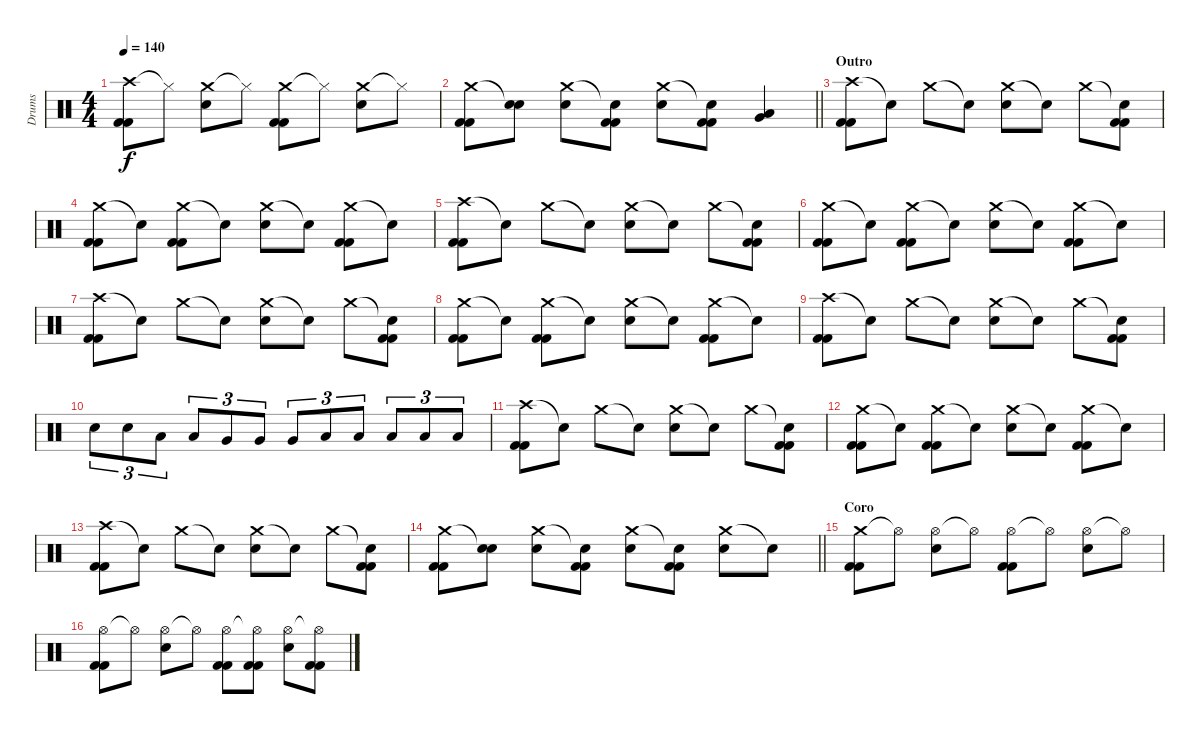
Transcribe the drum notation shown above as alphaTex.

\track ("Drums" "Drums") {instrument percussion}
\staff {score}
\articulation defaults
\ts (4 4)
\tempo 140
\clef neutral
\ks c
("Crash high (hit)" "Kick (hit) 2" "Kick (hit) 2").8{dy f} "Hi-Hat (closed)"{t}.8 ("Crash medium (hit)" "Electric Snare (hit)").8 "Hi-Hat (closed)"{t}.8 ("Crash medium (hit)" "Kick (hit) 2" "Kick (hit) 2").8 "Hi-Hat (closed)"{t}.8 ("Crash medium (hit)" "Electric Snare (hit)").8 "Hi-Hat (closed)"{t}.8 |
\barLineRight lightlight
("Crash medium (hit)" "Kick (hit) 2" "Kick (hit) 2").8 ("Snare (hit)"{t} "Electric Snare (hit)").8 ("Crash medium (hit)" "Electric Snare (hit)").8 ("Snare (hit)"{t} "Kick (hit) 2" "Kick (hit) 2").8 ("Crash medium (hit)" "Electric Snare (hit)").8 ("Snare (hit)"{t} "Kick (hit) 2" "Kick (hit) 2").8 ("Low Floor Tom (hit)" "Very Low Tom (hit)").4 |
\section ("" "Outro")
("Crash high (hit)" "Kick (hit) 2" "Kick (hit) 2").8 "Snare (hit)"{t}.8 "Crash medium (hit)".8 "Snare (hit)"{t}.8 ("Crash medium (hit)" "Electric Snare (hit)").8 "Snare (hit)"{t}.8 "Crash medium (hit)".8 ("Snare (hit)"{t} "Kick (hit) 2" "Kick (hit) 2").8 |
("Crash medium (hit)" "Kick (hit) 2" "Kick (hit) 2").8 "Snare (hit)"{t}.8 ("Crash medium (hit)" "Kick (hit) 2" "Kick (hit) 2").8 "Snare (hit)"{t}.8 ("Crash medium (hit)" "Electric Snare (hit)").8 "Snare (hit)"{t}.8 ("Crash medium (hit)" "Kick (hit) 2" "Kick (hit) 2").8 "Snare (hit)"{t}.8 |
("Crash high (hit)" "Kick (hit) 2" "Kick (hit) 2").8 "Snare (hit)"{t}.8 "Crash medium (hit)".8 "Snare (hit)"{t}.8 ("Crash medium (hit)" "Electric Snare (hit)").8 "Snare (hit)"{t}.8 "Crash medium (hit)".8 ("Snare (hit)"{t} "Kick (hit) 2" "Kick (hit) 2").8 |
("Crash medium (hit)" "Kick (hit) 2" "Kick (hit) 2").8 "Snare (hit)"{t}.8 ("Crash medium (hit)" "Kick (hit) 2" "Kick (hit) 2").8 "Snare (hit)"{t}.8 ("Crash medium (hit)" "Electric Snare (hit)").8 "Snare (hit)"{t}.8 ("Crash medium (hit)" "Kick (hit) 2" "Kick (hit) 2").8 "Snare (hit)"{t}.8 |
("Crash high (hit)" "Kick (hit) 2" "Kick (hit) 2").8 "Snare (hit)"{t}.8 "Crash medium (hit)".8 "Snare (hit)"{t}.8 ("Crash medium (hit)" "Electric Snare (hit)").8 "Snare (hit)"{t}.8 "Crash medium (hit)".8 ("Snare (hit)"{t} "Kick (hit) 2" "Kick (hit) 2").8 |
("Crash medium (hit)" "Kick (hit) 2" "Kick (hit) 2").8 "Snare (hit)"{t}.8 ("Crash medium (hit)" "Kick (hit) 2" "Kick (hit) 2").8 "Snare (hit)"{t}.8 ("Crash medium (hit)" "Electric Snare (hit)").8 "Snare (hit)"{t}.8 ("Crash medium (hit)" "Kick (hit) 2" "Kick (hit) 2").8 "Snare (hit)"{t}.8 |
("Crash high (hit)" "Kick (hit) 2" "Kick (hit) 2").8 "Snare (hit)"{t}.8 "Crash medium (hit)".8 "Snare (hit)"{t}.8 ("Crash medium (hit)" "Electric Snare (hit)").8 "Snare (hit)"{t}.8 "Crash medium (hit)".8 ("Snare (hit)"{t} "Kick (hit) 2" "Kick (hit) 2").8 |
"Electric Snare (hit)".8{tu (3 2)} "Electric Snare (hit)".8{tu (3 2)} "Low Tom (hit)".8{tu (3 2)} "Low Tom (hit)".8{tu (3 2)} "Very Low Tom (hit)".8{tu (3 2)} "Very Low Tom (hit)".8{tu (3 2)} "Very Low Tom (hit)".8{tu (3 2)} "Low Floor Tom (hit)".8{tu (3 2)} "Low Floor Tom (hit)".8{tu (3 2)} "Low Floor Tom (hit)".8{tu (3 2)} "Low Floor Tom (hit)".8{tu (3 2)} "Low Floor Tom (hit)".8{tu (3 2)} |
("Crash high (hit)" "Kick (hit) 2" "Kick (hit) 2").8 "Snare (hit)"{t}.8 "Crash medium (hit)".8 "Snare (hit)"{t}.8 ("Crash medium (hit)" "Electric Snare (hit)").8 "Snare (hit)"{t}.8 "Crash medium (hit)".8 ("Snare (hit)"{t} "Kick (hit) 2" "Kick (hit) 2").8 |
("Crash medium (hit)" "Kick (hit) 2" "Kick (hit) 2").8 "Snare (hit)"{t}.8 ("Crash medium (hit)" "Kick (hit) 2" "Kick (hit) 2").8 "Snare (hit)"{t}.8 ("Crash medium (hit)" "Electric Snare (hit)").8 "Snare (hit)"{t}.8 ("Crash medium (hit)" "Kick (hit) 2" "Kick (hit) 2").8 "Snare (hit)"{t}.8 |
("Crash high (hit)" "Kick (hit) 2" "Kick (hit) 2").8 "Snare (hit)"{t}.8 "Crash medium (hit)".8 "Snare (hit)"{t}.8 ("Crash medium (hit)" "Electric Snare (hit)").8 "Snare (hit)"{t}.8 "Crash medium (hit)".8 ("Snare (hit)"{t} "Kick (hit) 2" "Kick (hit) 2").8 |
\barLineRight lightlight
("Crash medium (hit)" "Kick (hit) 2" "Kick (hit) 2").8 ("Snare (hit)"{t} "Electric Snare (hit)").8 ("Crash medium (hit)" "Electric Snare (hit)").8 ("Snare (hit)"{t} "Kick (hit) 2" "Kick (hit) 2").8 ("Crash medium (hit)" "Electric Snare (hit)").8 ("Snare (hit)"{t} "Kick (hit) 2" "Kick (hit) 2").8 ("Crash medium (hit)" "Electric Snare (hit)").8 "Snare (hit)"{t}.8 |
\section ("" "Coro")
("Crash medium (hit)" "Kick (hit) 2" "Kick (hit) 2").8 "Hi-Hat (open)"{t}.8 ("Hi-Hat (open)" "Electric Snare (hit)").8 "Hi-Hat (open)"{t}.8 ("Hi-Hat (open)" "Kick (hit) 2" "Kick (hit) 2").8 "Hi-Hat (open)"{t}.8 ("Hi-Hat (open)" "Electric Snare (hit)").8 "Hi-Hat (open)"{t}.8 |
("Hi-Hat (open)" "Kick (hit) 2" "Kick (hit) 2").8 "Hi-Hat (open)"{t}.8 ("Hi-Hat (open)" "Electric Snare (hit)").8 "Hi-Hat (open)"{t}.8 ("Hi-Hat (open)" "Kick (hit) 2" "Kick (hit) 2").8 ("Hi-Hat (open)"{t} "Kick (hit) 2" "Kick (hit) 2").8 ("Hi-Hat (open)" "Electric Snare (hit)").8 ("Hi-Hat (open)"{t} "Kick (hit) 2" "Kick (hit) 2").8
